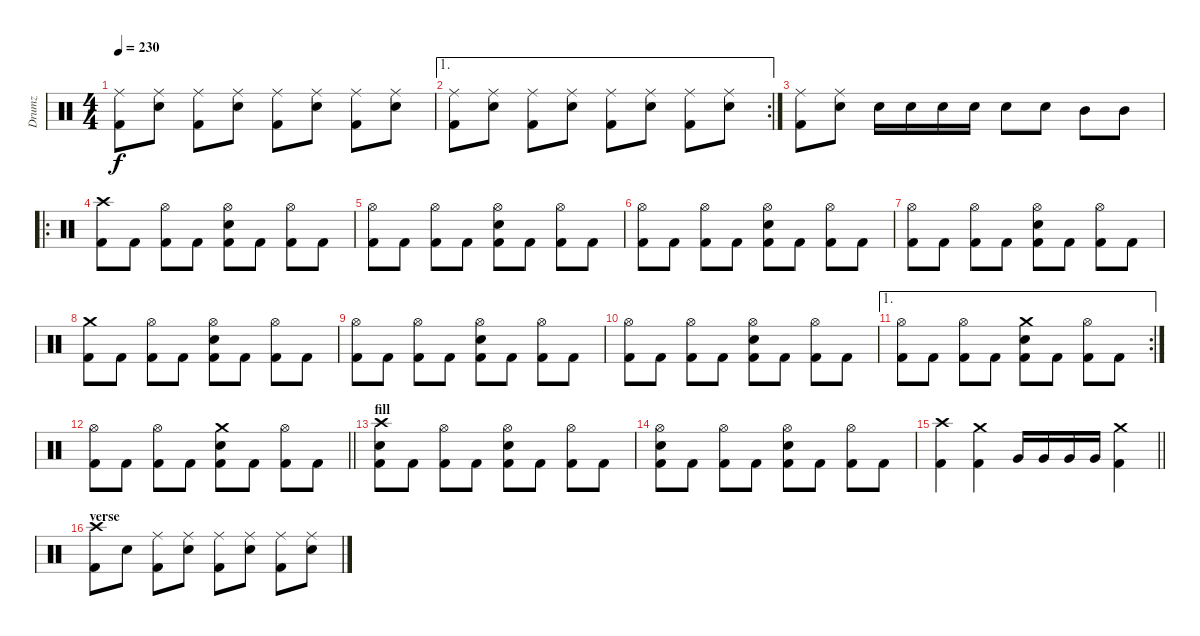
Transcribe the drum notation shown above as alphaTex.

\track ("Drumz" "Drumz") {instrument percussion}
\staff {score}
\articulation defaults
\ts (4 4)
\tempo 230
\clef neutral
\ks c
("Ride (middle)" "Kick (hit) 2").8{dy f} ("Ride (middle)" "Electric Snare (hit)").8 ("Ride (middle)" "Kick (hit) 2").8 ("Ride (middle)" "Electric Snare (hit)").8 ("Ride (middle)" "Kick (hit) 2").8 ("Ride (middle)" "Electric Snare (hit)").8 ("Ride (middle)" "Kick (hit) 2").8 ("Ride (middle)" "Electric Snare (hit)").8 |
\ae 1
\rc 2
("Ride (middle)" "Kick (hit) 2").8 ("Ride (middle)" "Electric Snare (hit)").8 ("Ride (middle)" "Kick (hit) 2").8 ("Ride (middle)" "Electric Snare (hit)").8 ("Ride (middle)" "Kick (hit) 2").8 ("Ride (middle)" "Electric Snare (hit)").8 ("Ride (middle)" "Kick (hit) 2").8 ("Ride (middle)" "Electric Snare (hit)").8 |
("Ride (middle)" "Kick (hit) 2").8 ("Ride (middle)" "Electric Snare (hit)").8 "Electric Snare (hit)".16 "Electric Snare (hit)".16 "Electric Snare (hit)".16 "Electric Snare (hit)".16 "Electric Snare (hit)".8 "Electric Snare (hit)".8 "Mid Tom (hit)".8 "Mid Tom (hit)".8 |
\ro
("Crash high (hit)" "Kick (hit) 2").8 "Kick (hit) 2".8 ("Hi-Hat (open)" "Kick (hit) 2").8 "Kick (hit) 2".8 ("Hi-Hat (open)" "Electric Snare (hit)" "Kick (hit) 2").8 "Kick (hit) 2".8 ("Hi-Hat (open)" "Kick (hit) 2").8 "Kick (hit) 2".8 |
("Hi-Hat (open)" "Kick (hit) 2").8 "Kick (hit) 2".8 ("Hi-Hat (open)" "Kick (hit) 2").8 "Kick (hit) 2".8 ("Hi-Hat (open)" "Electric Snare (hit)" "Kick (hit) 2").8 "Kick (hit) 2".8 ("Hi-Hat (open)" "Kick (hit) 2").8 "Kick (hit) 2".8 |
("Hi-Hat (open)" "Kick (hit) 2").8 "Kick (hit) 2".8 ("Hi-Hat (open)" "Kick (hit) 2").8 "Kick (hit) 2".8 ("Hi-Hat (open)" "Electric Snare (hit)" "Kick (hit) 2").8 "Kick (hit) 2".8 ("Hi-Hat (open)" "Kick (hit) 2").8 "Kick (hit) 2".8 |
("Hi-Hat (open)" "Kick (hit) 2").8 "Kick (hit) 2".8 ("Hi-Hat (open)" "Kick (hit) 2").8 "Kick (hit) 2".8 ("Hi-Hat (open)" "Electric Snare (hit)" "Kick (hit) 2").8 "Kick (hit) 2".8 ("Hi-Hat (open)" "Kick (hit) 2").8 "Kick (hit) 2".8 |
("Crash medium (hit)" "Kick (hit) 2").8 "Kick (hit) 2".8 ("Hi-Hat (open)" "Kick (hit) 2").8 "Kick (hit) 2".8 ("Hi-Hat (open)" "Electric Snare (hit)" "Kick (hit) 2").8 "Kick (hit) 2".8 ("Hi-Hat (open)" "Kick (hit) 2").8 "Kick (hit) 2".8 |
("Hi-Hat (open)" "Kick (hit) 2").8 "Kick (hit) 2".8 ("Hi-Hat (open)" "Kick (hit) 2").8 "Kick (hit) 2".8 ("Hi-Hat (open)" "Electric Snare (hit)" "Kick (hit) 2").8 "Kick (hit) 2".8 ("Hi-Hat (open)" "Kick (hit) 2").8 "Kick (hit) 2".8 |
("Hi-Hat (open)" "Kick (hit) 2").8 "Kick (hit) 2".8 ("Hi-Hat (open)" "Kick (hit) 2").8 "Kick (hit) 2".8 ("Hi-Hat (open)" "Electric Snare (hit)" "Kick (hit) 2").8 "Kick (hit) 2".8 ("Hi-Hat (open)" "Kick (hit) 2").8 "Kick (hit) 2".8 |
\ae 1
\rc 2
("Hi-Hat (open)" "Kick (hit) 2").8 "Kick (hit) 2".8 ("Hi-Hat (open)" "Kick (hit) 2").8 "Kick (hit) 2".8 ("Crash medium (hit)" "Electric Snare (hit)" "Kick (hit) 2").8 "Kick (hit) 2".8 ("Hi-Hat (open)" "Kick (hit) 2").8 "Kick (hit) 2".8 |
\barLineRight lightlight
("Hi-Hat (open)" "Kick (hit) 2").8 "Kick (hit) 2".8 ("Hi-Hat (open)" "Kick (hit) 2").8 "Kick (hit) 2".8 ("Crash medium (hit)" "Electric Snare (hit)" "Kick (hit) 2").8 "Kick (hit) 2".8 ("Hi-Hat (open)" "Kick (hit) 2").8 "Kick (hit) 2".8 |
\section ("" "fill")
("Crash high (hit)" "Electric Snare (hit)" "Kick (hit) 2").8 "Kick (hit) 2".8 ("Hi-Hat (open)" "Kick (hit) 2").8 "Kick (hit) 2".8 ("Hi-Hat (open)" "Electric Snare (hit)" "Kick (hit) 2").8 "Kick (hit) 2".8 ("Hi-Hat (open)" "Kick (hit) 2").8 "Kick (hit) 2".8 |
("Hi-Hat (open)" "Electric Snare (hit)" "Kick (hit) 2").8 "Kick (hit) 2".8 ("Hi-Hat (open)" "Kick (hit) 2").8 "Kick (hit) 2".8 ("Hi-Hat (open)" "Electric Snare (hit)" "Kick (hit) 2").8 "Kick (hit) 2".8 ("Hi-Hat (open)" "Kick (hit) 2").8 "Kick (hit) 2".8 |
\barLineRight lightlight
("Crash high (hit)" "Kick (hit) 2").4 ("Crash medium (hit)" "Kick (hit) 2").4 "Very Low Tom (hit)".16 "Very Low Tom (hit)".16 "Very Low Tom (hit)".16 "Very Low Tom (hit)".16 ("Crash medium (hit)" "Kick (hit) 2").4 |
\section ("" "verse")
("Crash high (hit)" "Kick (hit) 2").8 "Electric Snare (hit)".8 ("Ride (middle)" "Kick (hit) 2").8 ("Ride (middle)" "Electric Snare (hit)").8 ("Ride (middle)" "Kick (hit) 2").8 ("Ride (middle)" "Electric Snare (hit)").8 ("Ride (middle)" "Kick (hit) 2").8 ("Ride (middle)" "Electric Snare (hit)").8
